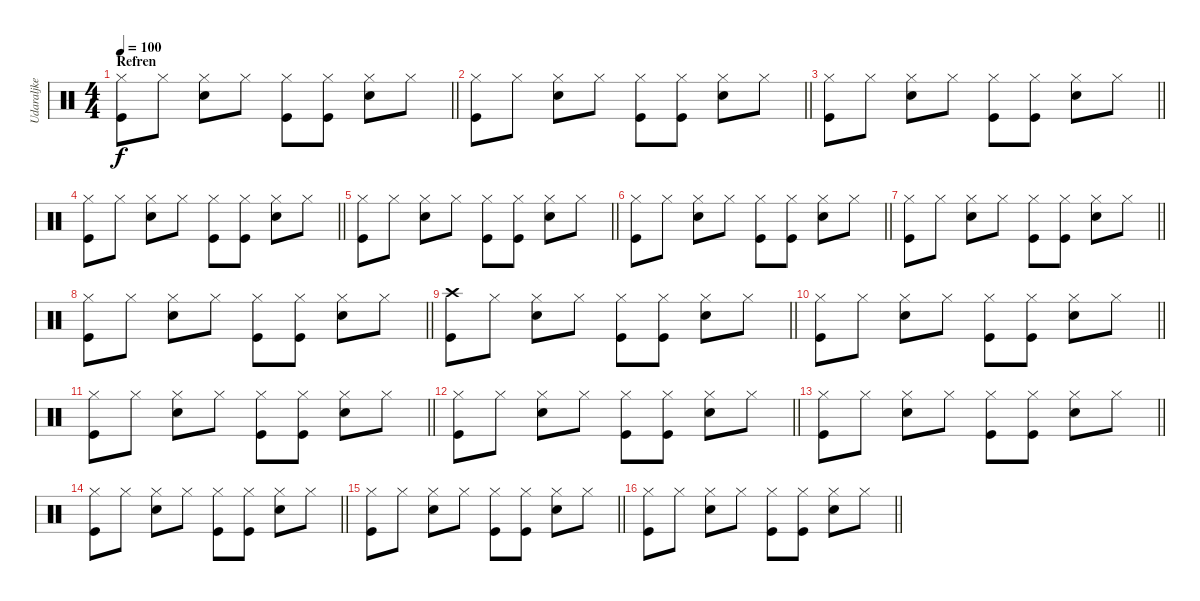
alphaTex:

\track ("Udaraljke" "Udaraljke") {instrument percussion}
\staff {score}
\articulation defaults
\ts (4 4)
\section ("" "Refren")
\tempo 100
\clef neutral
\barLineRight lightlight
\ks c
("Hi-Hat (closed)" "Kick (hit)").8{dy f} "Hi-Hat (closed)".8 ("Hi-Hat (closed)" "Snare (hit) 2").8 "Hi-Hat (closed)".8 ("Hi-Hat (closed)" "Kick (hit)").8 ("Hi-Hat (closed)" "Kick (hit)").8 ("Hi-Hat (closed)" "Snare (hit) 2").8 "Hi-Hat (closed)".8 |
\barLineRight lightlight
("Hi-Hat (closed)" "Kick (hit)").8 "Hi-Hat (closed)".8 ("Hi-Hat (closed)" "Snare (hit) 2").8 "Hi-Hat (closed)".8 ("Hi-Hat (closed)" "Kick (hit)").8 ("Hi-Hat (closed)" "Kick (hit)").8 ("Hi-Hat (closed)" "Snare (hit) 2").8 "Hi-Hat (closed)".8 |
\barLineRight lightlight
("Hi-Hat (closed)" "Kick (hit)").8 "Hi-Hat (closed)".8 ("Hi-Hat (closed)" "Snare (hit) 2").8 "Hi-Hat (closed)".8 ("Hi-Hat (closed)" "Kick (hit)").8 ("Hi-Hat (closed)" "Kick (hit)").8 ("Hi-Hat (closed)" "Snare (hit) 2").8 "Hi-Hat (closed)".8 |
\barLineRight lightlight
("Hi-Hat (closed)" "Kick (hit)").8 "Hi-Hat (closed)".8 ("Hi-Hat (closed)" "Snare (hit) 2").8 "Hi-Hat (closed)".8 ("Hi-Hat (closed)" "Kick (hit)").8 ("Hi-Hat (closed)" "Kick (hit)").8 ("Hi-Hat (closed)" "Snare (hit) 2").8 "Hi-Hat (closed)".8 |
\barLineRight lightlight
("Hi-Hat (closed)" "Kick (hit)").8 "Hi-Hat (closed)".8 ("Hi-Hat (closed)" "Snare (hit) 2").8 "Hi-Hat (closed)".8 ("Hi-Hat (closed)" "Kick (hit)").8 ("Hi-Hat (closed)" "Kick (hit)").8 ("Hi-Hat (closed)" "Snare (hit) 2").8 "Hi-Hat (closed)".8 |
\barLineRight lightlight
("Hi-Hat (closed)" "Kick (hit)").8 "Hi-Hat (closed)".8 ("Hi-Hat (closed)" "Snare (hit) 2").8 "Hi-Hat (closed)".8 ("Hi-Hat (closed)" "Kick (hit)").8 ("Hi-Hat (closed)" "Kick (hit)").8 ("Hi-Hat (closed)" "Snare (hit) 2").8 "Hi-Hat (closed)".8 |
\barLineRight lightlight
("Hi-Hat (closed)" "Kick (hit)").8 "Hi-Hat (closed)".8 ("Hi-Hat (closed)" "Snare (hit) 2").8 "Hi-Hat (closed)".8 ("Hi-Hat (closed)" "Kick (hit)").8 ("Hi-Hat (closed)" "Kick (hit)").8 ("Hi-Hat (closed)" "Snare (hit) 2").8 "Hi-Hat (closed)".8 |
\barLineRight lightlight
("Hi-Hat (closed)" "Kick (hit)").8 "Hi-Hat (closed)".8 ("Hi-Hat (closed)" "Snare (hit) 2").8 "Hi-Hat (closed)".8 ("Hi-Hat (closed)" "Kick (hit)").8 ("Hi-Hat (closed)" "Kick (hit)").8 ("Hi-Hat (closed)" "Snare (hit) 2").8 "Hi-Hat (closed)".8 |
\barLineRight lightlight
("Crash high (hit)" "Kick (hit)").8 "Hi-Hat (closed)".8 ("Hi-Hat (closed)" "Snare (hit) 2").8 "Hi-Hat (closed)".8 ("Hi-Hat (closed)" "Kick (hit)").8 ("Hi-Hat (closed)" "Kick (hit)").8 ("Hi-Hat (closed)" "Snare (hit) 2").8 "Hi-Hat (closed)".8 |
\barLineRight lightlight
("Hi-Hat (closed)" "Kick (hit)").8 "Hi-Hat (closed)".8 ("Hi-Hat (closed)" "Snare (hit) 2").8 "Hi-Hat (closed)".8 ("Hi-Hat (closed)" "Kick (hit)").8 ("Hi-Hat (closed)" "Kick (hit)").8 ("Hi-Hat (closed)" "Snare (hit) 2").8 "Hi-Hat (closed)".8 |
\barLineRight lightlight
("Hi-Hat (closed)" "Kick (hit)").8 "Hi-Hat (closed)".8 ("Hi-Hat (closed)" "Snare (hit) 2").8 "Hi-Hat (closed)".8 ("Hi-Hat (closed)" "Kick (hit)").8 ("Hi-Hat (closed)" "Kick (hit)").8 ("Hi-Hat (closed)" "Snare (hit) 2").8 "Hi-Hat (closed)".8 |
\barLineRight lightlight
("Hi-Hat (closed)" "Kick (hit)").8 "Hi-Hat (closed)".8 ("Hi-Hat (closed)" "Snare (hit) 2").8 "Hi-Hat (closed)".8 ("Hi-Hat (closed)" "Kick (hit)").8 ("Hi-Hat (closed)" "Kick (hit)").8 ("Hi-Hat (closed)" "Snare (hit) 2").8 "Hi-Hat (closed)".8 |
\barLineRight lightlight
("Hi-Hat (closed)" "Kick (hit)").8 "Hi-Hat (closed)".8 ("Hi-Hat (closed)" "Snare (hit) 2").8 "Hi-Hat (closed)".8 ("Hi-Hat (closed)" "Kick (hit)").8 ("Hi-Hat (closed)" "Kick (hit)").8 ("Hi-Hat (closed)" "Snare (hit) 2").8 "Hi-Hat (closed)".8 |
\barLineRight lightlight
("Hi-Hat (closed)" "Kick (hit)").8 "Hi-Hat (closed)".8 ("Hi-Hat (closed)" "Snare (hit) 2").8 "Hi-Hat (closed)".8 ("Hi-Hat (closed)" "Kick (hit)").8 ("Hi-Hat (closed)" "Kick (hit)").8 ("Hi-Hat (closed)" "Snare (hit) 2").8 "Hi-Hat (closed)".8 |
\barLineRight lightlight
("Hi-Hat (closed)" "Kick (hit)").8 "Hi-Hat (closed)".8 ("Hi-Hat (closed)" "Snare (hit) 2").8 "Hi-Hat (closed)".8 ("Hi-Hat (closed)" "Kick (hit)").8 ("Hi-Hat (closed)" "Kick (hit)").8 ("Hi-Hat (closed)" "Snare (hit) 2").8 "Hi-Hat (closed)".8 |
\barLineRight lightlight
("Hi-Hat (closed)" "Kick (hit)").8 "Hi-Hat (closed)".8 ("Hi-Hat (closed)" "Snare (hit) 2").8 "Hi-Hat (closed)".8 ("Hi-Hat (closed)" "Kick (hit)").8 ("Hi-Hat (closed)" "Kick (hit)").8 ("Hi-Hat (closed)" "Snare (hit) 2").8 "Hi-Hat (closed)".8
